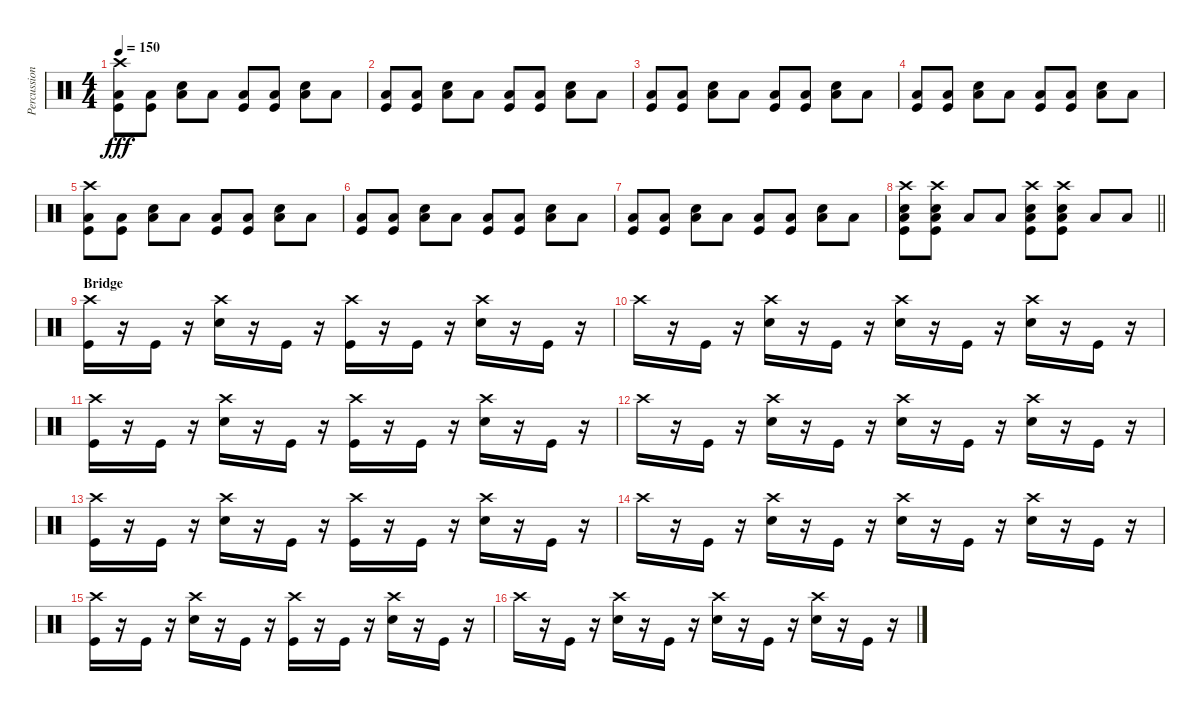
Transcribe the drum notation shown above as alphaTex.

\track ("Percussion" "Percussion") {instrument percussion}
\staff {score}
\articulation defaults
\ts (4 4)
\tempo 150
\clef neutral
\ks c
("Crash high (hit)" "Low Floor Tom (hit)" "Kick (hit)").8{dy fff} ("Low Floor Tom (hit)" "Kick (hit)").8 ("Low Floor Tom (hit)" "Snare (hit) 2").8 "Low Floor Tom (hit)".8 ("Low Floor Tom (hit)" "Kick (hit)").8 ("Low Floor Tom (hit)" "Kick (hit)").8 ("Low Floor Tom (hit)" "Snare (hit) 2").8 "Low Floor Tom (hit)".8 |
("Low Floor Tom (hit)" "Kick (hit)").8 ("Low Floor Tom (hit)" "Kick (hit)").8 ("Low Floor Tom (hit)" "Snare (hit) 2").8 "Low Floor Tom (hit)".8 ("Low Floor Tom (hit)" "Kick (hit)").8 ("Low Floor Tom (hit)" "Kick (hit)").8 ("Low Floor Tom (hit)" "Snare (hit) 2").8 "Low Floor Tom (hit)".8 |
("Low Floor Tom (hit)" "Kick (hit)").8 ("Low Floor Tom (hit)" "Kick (hit)").8 ("Low Floor Tom (hit)" "Snare (hit) 2").8 "Low Floor Tom (hit)".8 ("Low Floor Tom (hit)" "Kick (hit)").8 ("Low Floor Tom (hit)" "Kick (hit)").8 ("Low Floor Tom (hit)" "Snare (hit) 2").8 "Low Floor Tom (hit)".8 |
("Low Floor Tom (hit)" "Kick (hit)").8 ("Low Floor Tom (hit)" "Kick (hit)").8 ("Low Floor Tom (hit)" "Snare (hit) 2").8 "Low Floor Tom (hit)".8 ("Low Floor Tom (hit)" "Kick (hit)").8 ("Low Floor Tom (hit)" "Kick (hit)").8 ("Low Floor Tom (hit)" "Snare (hit) 2").8 "Low Floor Tom (hit)".8 |
("Crash high (hit)" "Low Floor Tom (hit)" "Kick (hit)").8 ("Low Floor Tom (hit)" "Kick (hit)").8 ("Low Floor Tom (hit)" "Snare (hit) 2").8 "Low Floor Tom (hit)".8 ("Low Floor Tom (hit)" "Kick (hit)").8 ("Low Floor Tom (hit)" "Kick (hit)").8 ("Low Floor Tom (hit)" "Snare (hit) 2").8 "Low Floor Tom (hit)".8 |
("Low Floor Tom (hit)" "Kick (hit)").8 ("Low Floor Tom (hit)" "Kick (hit)").8 ("Low Floor Tom (hit)" "Snare (hit) 2").8 "Low Floor Tom (hit)".8 ("Low Floor Tom (hit)" "Kick (hit)").8 ("Low Floor Tom (hit)" "Kick (hit)").8 ("Low Floor Tom (hit)" "Snare (hit) 2").8 "Low Floor Tom (hit)".8 |
("Low Floor Tom (hit)" "Kick (hit)").8 ("Low Floor Tom (hit)" "Kick (hit)").8 ("Low Floor Tom (hit)" "Snare (hit) 2").8 "Low Floor Tom (hit)".8 ("Low Floor Tom (hit)" "Kick (hit)").8 ("Low Floor Tom (hit)" "Kick (hit)").8 ("Low Floor Tom (hit)" "Snare (hit) 2").8 "Low Floor Tom (hit)".8 |
\barLineRight lightlight
("Crash high (hit)" "Low Floor Tom (hit)" "Snare (hit) 2" "Kick (hit)").8 ("Crash high (hit)" "Low Floor Tom (hit)" "Snare (hit) 2" "Kick (hit)").8 "Low Floor Tom (hit)".8 "Low Floor Tom (hit)".8 ("Crash high (hit)" "Low Floor Tom (hit)" "Snare (hit) 2" "Kick (hit)").8 ("Crash high (hit)" "Low Floor Tom (hit)" "Snare (hit) 2" "Kick (hit)").8 "Low Floor Tom (hit)".8 "Low Floor Tom (hit)".8 |
\section ("" "Bridge")
("Crash high (hit)" "Kick (hit)").16 r.16 "Kick (hit)".16 r.16 ("Crash high (hit)" "Snare (hit) 2").16 r.16 "Kick (hit)".16 r.16 ("Crash high (hit)" "Kick (hit)").16 r.16 "Kick (hit)".16 r.16 ("Crash high (hit)" "Snare (hit) 2").16 r.16 "Kick (hit)".16 r.16 |
"Crash high (hit)".16 r.16 "Kick (hit)".16 r.16 ("Crash high (hit)" "Snare (hit) 2").16 r.16 "Kick (hit)".16 r.16 ("Crash high (hit)" "Snare (hit) 2").16 r.16 "Kick (hit)".16 r.16 ("Crash high (hit)" "Snare (hit) 2").16 r.16 "Kick (hit)".16 r.16 |
("Crash high (hit)" "Kick (hit)").16 r.16 "Kick (hit)".16 r.16 ("Crash high (hit)" "Snare (hit) 2").16 r.16 "Kick (hit)".16 r.16 ("Crash high (hit)" "Kick (hit)").16 r.16 "Kick (hit)".16 r.16 ("Crash high (hit)" "Snare (hit) 2").16 r.16 "Kick (hit)".16 r.16 |
"Crash high (hit)".16 r.16 "Kick (hit)".16 r.16 ("Crash high (hit)" "Snare (hit) 2").16 r.16 "Kick (hit)".16 r.16 ("Crash high (hit)" "Snare (hit) 2").16 r.16 "Kick (hit)".16 r.16 ("Crash high (hit)" "Snare (hit) 2").16 r.16 "Kick (hit)".16 r.16 |
("Crash high (hit)" "Kick (hit)").16 r.16 "Kick (hit)".16 r.16 ("Crash high (hit)" "Snare (hit) 2").16 r.16 "Kick (hit)".16 r.16 ("Crash high (hit)" "Kick (hit)").16 r.16 "Kick (hit)".16 r.16 ("Crash high (hit)" "Snare (hit) 2").16 r.16 "Kick (hit)".16 r.16 |
"Crash high (hit)".16 r.16 "Kick (hit)".16 r.16 ("Crash high (hit)" "Snare (hit) 2").16 r.16 "Kick (hit)".16 r.16 ("Crash high (hit)" "Snare (hit) 2").16 r.16 "Kick (hit)".16 r.16 ("Crash high (hit)" "Snare (hit) 2").16 r.16 "Kick (hit)".16 r.16 |
("Crash high (hit)" "Kick (hit)").16 r.16 "Kick (hit)".16 r.16 ("Crash high (hit)" "Snare (hit) 2").16 r.16 "Kick (hit)".16 r.16 ("Crash high (hit)" "Kick (hit)").16 r.16 "Kick (hit)".16 r.16 ("Crash high (hit)" "Snare (hit) 2").16 r.16 "Kick (hit)".16 r.16 |
"Crash high (hit)".16 r.16 "Kick (hit)".16 r.16 ("Crash high (hit)" "Snare (hit) 2").16 r.16 "Kick (hit)".16 r.16 ("Crash high (hit)" "Snare (hit) 2").16 r.16 "Kick (hit)".16 r.16 ("Crash high (hit)" "Snare (hit) 2").16 r.16 "Kick (hit)".16 r.16
